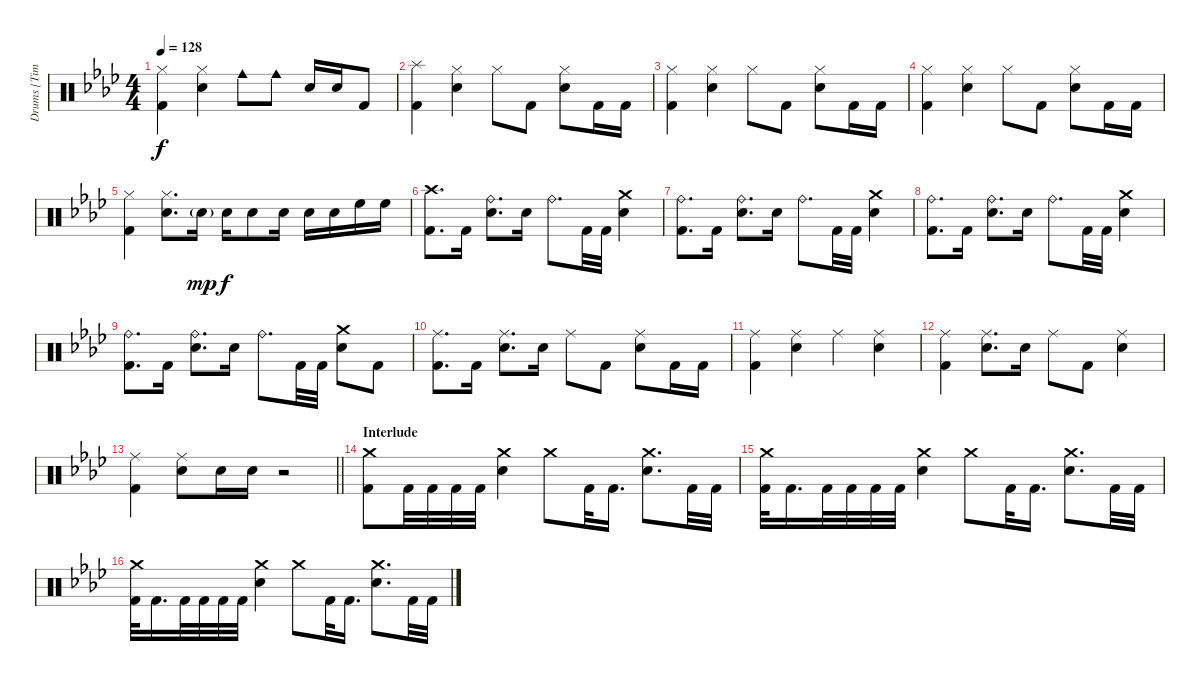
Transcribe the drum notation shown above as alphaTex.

\track ("Drums [Tim Alexander]" "Drums [Tim") {instrument percussion}
\staff {score}
\articulation defaults
\ts (4 4)
\tempo 128
\clef neutral
\ks ab
("Hi-Hat (closed)" "Kick (hit) 2").4{dy f} ("Hi-Hat (closed)" "Electric Snare (hit)").4 "Cowbell medium (hit)".8 "Cowbell medium (hit)".8 "Electric Snare (hit)".16 "Electric Snare (hit)".16 "Kick (hit) 2".8 |
("Splash (hit)" "Kick (hit) 2").4 ("Hi-Hat (closed)" "Electric Snare (hit)").4 "Hi-Hat (closed)".8 "Kick (hit) 2".8 ("Hi-Hat (closed)" "Electric Snare (hit)").8 "Kick (hit) 2".16 "Kick (hit) 2".16 |
("Hi-Hat (closed)" "Kick (hit) 2").4 ("Hi-Hat (closed)" "Electric Snare (hit)").4 "Hi-Hat (closed)".8 "Kick (hit) 2".8 ("Hi-Hat (closed)" "Electric Snare (hit)").8 "Kick (hit) 2".16 "Kick (hit) 2".16 |
("Hi-Hat (closed)" "Kick (hit) 2").4 ("Hi-Hat (closed)" "Electric Snare (hit)").4 "Hi-Hat (closed)".8 "Kick (hit) 2".8 ("Hi-Hat (closed)" "Electric Snare (hit)").8 "Kick (hit) 2".16 "Kick (hit) 2".16 |
("Hi-Hat (closed)" "Kick (hit) 2").4 ("Hi-Hat (closed)" "Electric Snare (hit)").8{d} "Electric Snare (hit)"{g}.16{dy mp} "Electric Snare (hit)".16{dy f} "Electric Snare (hit)".8 "Electric Snare (hit)".16 "Electric Snare (hit)".16 "Electric Snare (hit)".16 "High Floor Tom (hit)".16 "High Floor Tom (hit)".16 |
("Crash high (hit)" "Kick (hit) 2").8{d} "Kick (hit) 2".16 ("Ride (bell)" "Electric Snare (hit)").8{d} "Electric Snare (hit)".16 "Ride (bell)".8{d} "Kick (hit) 2".32 "Kick (hit) 2".32 ("Crash medium (hit)" "Electric Snare (hit)").4 |
("Ride (bell)" "Kick (hit) 2").8{d} "Kick (hit) 2".16 ("Ride (bell)" "Electric Snare (hit)").8{d} "Electric Snare (hit)".16 "Ride (bell)".8{d} "Kick (hit) 2".32 "Kick (hit) 2".32 ("Crash medium (hit)" "Electric Snare (hit)").4 |
("Ride (bell)" "Kick (hit) 2").8{d} "Kick (hit) 2".16 ("Ride (bell)" "Electric Snare (hit)").8{d} "Electric Snare (hit)".16 "Ride (bell)".8{d} "Kick (hit) 2".32 "Kick (hit) 2".32 ("Crash medium (hit)" "Electric Snare (hit)").4 |
("Ride (bell)" "Kick (hit) 2").8{d} "Kick (hit) 2".16 ("Ride (bell)" "Electric Snare (hit)").8{d} "Electric Snare (hit)".16 "Ride (bell)".8{d} "Kick (hit) 2".32 "Kick (hit) 2".32 ("Crash medium (hit)" "Electric Snare (hit)").8 "Kick (hit) 2".8 |
("Ride (middle)" "Kick (hit) 2").8{d} "Kick (hit) 2".16 ("Ride (middle)" "Electric Snare (hit)").8{d} "Electric Snare (hit)".16 "Ride (middle)".8 "Kick (hit) 2".8 ("Ride (middle)" "Electric Snare (hit)").8 "Kick (hit) 2".16 "Kick (hit) 2".16 |
("Ride (middle)" "Kick (hit) 2").4 ("Ride (middle)" "Electric Snare (hit)").4 "Ride (middle)".4 ("Ride (middle)" "Electric Snare (hit)").4 |
("Ride (middle)" "Kick (hit) 2").4 ("Ride (middle)" "Electric Snare (hit)").8{d} "Electric Snare (hit)".16 "Ride (middle)".8 "Kick (hit) 2".8 ("Ride (middle)" "Electric Snare (hit)").4 |
\barLineRight lightlight
("Ride (middle)" "Kick (hit) 2").4 ("Ride (middle)" "Electric Snare (hit)").8 "Electric Snare (hit)".16 "Electric Snare (hit)".16 r.2 |
\section ("" "Interlude")
("Crash medium (hit)" "Kick (hit) 2").8 "Kick (hit) 2".32 "Kick (hit) 2".32 "Kick (hit) 2".32 "Kick (hit) 2".32 ("Crash medium (hit)" "Electric Snare (hit)").4 "Crash medium (hit)".8 "Kick (hit) 2".32 "Kick (hit) 2".16{d} ("Crash medium (hit)" "Electric Snare (hit)").8{d} "Kick (hit) 2".32 "Kick (hit) 2".32 |
("Crash medium (hit)" "Kick (hit) 2").32 "Kick (hit) 2".16{d} "Kick (hit) 2".32 "Kick (hit) 2".32 "Kick (hit) 2".32 "Kick (hit) 2".32 ("Crash medium (hit)" "Electric Snare (hit)").4 "Crash medium (hit)".8 "Kick (hit) 2".32 "Kick (hit) 2".16{d} ("Crash medium (hit)" "Electric Snare (hit)").8{d} "Kick (hit) 2".32 "Kick (hit) 2".32 |
("Crash medium (hit)" "Kick (hit) 2").32 "Kick (hit) 2".16{d} "Kick (hit) 2".32 "Kick (hit) 2".32 "Kick (hit) 2".32 "Kick (hit) 2".32 ("Crash medium (hit)" "Electric Snare (hit)").4 "Crash medium (hit)".8 "Kick (hit) 2".32 "Kick (hit) 2".16{d} ("Crash medium (hit)" "Electric Snare (hit)").8{d} "Kick (hit) 2".32 "Kick (hit) 2".32
